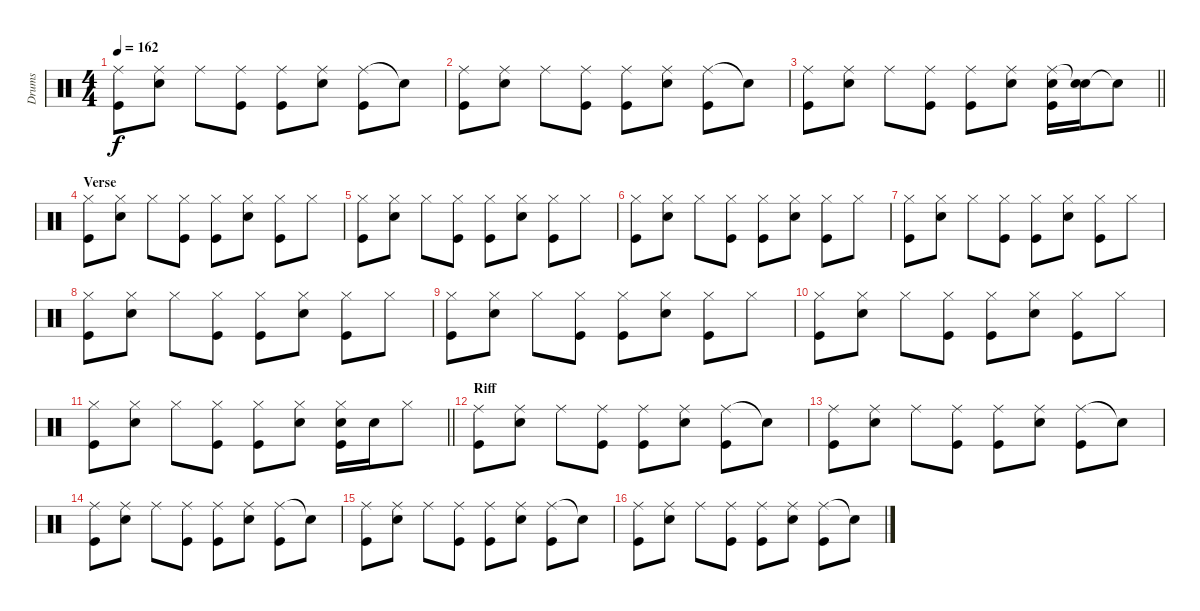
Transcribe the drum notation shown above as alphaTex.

\track ("Drums" "Drums") {instrument percussion}
\staff {score}
\articulation defaults
\ts (4 4)
\tempo 162
\clef neutral
\ks c
("Ride (middle)" "Kick (hit)").8{dy f} ("Ride (middle)" "Snare (hit) 2").8 "Ride (middle)".8 ("Ride (middle)" "Kick (hit)").8 ("Ride (middle)" "Kick (hit)").8 ("Ride (middle)" "Snare (hit) 2").8 ("Ride (middle)" "Kick (hit)").8 "Snare (hit)"{t}.8 |
("Ride (middle)" "Kick (hit)").8 ("Ride (middle)" "Snare (hit) 2").8 "Ride (middle)".8 ("Ride (middle)" "Kick (hit)").8 ("Ride (middle)" "Kick (hit)").8 ("Ride (middle)" "Snare (hit) 2").8 ("Ride (middle)" "Kick (hit)").8 "Snare (hit)"{t}.8 |
\barLineRight lightlight
("Ride (middle)" "Kick (hit)").8 ("Ride (middle)" "Snare (hit) 2").8 "Ride (middle)".8 ("Ride (middle)" "Kick (hit)").8 ("Ride (middle)" "Kick (hit)").8 ("Ride (middle)" "Snare (hit) 2").8 ("Ride (middle)" "Snare (hit) 2" "Kick (hit)").16 ("Snare (hit)"{t} "Snare (hit) 2").16 "Snare (hit)"{t}.8 |
\section ("" "Verse")
("Hi-Hat (closed)" "Kick (hit)").8 ("Hi-Hat (closed)" "Snare (hit) 2").8 "Hi-Hat (closed)".8 ("Hi-Hat (closed)" "Kick (hit)").8 ("Hi-Hat (closed)" "Kick (hit)").8 ("Hi-Hat (closed)" "Snare (hit) 2").8 ("Hi-Hat (closed)" "Kick (hit)").8 "Hi-Hat (closed)".8 |
("Hi-Hat (closed)" "Kick (hit)").8 ("Hi-Hat (closed)" "Snare (hit) 2").8 "Hi-Hat (closed)".8 ("Hi-Hat (closed)" "Kick (hit)").8 ("Hi-Hat (closed)" "Kick (hit)").8 ("Hi-Hat (closed)" "Snare (hit) 2").8 ("Hi-Hat (closed)" "Kick (hit)").8 "Hi-Hat (closed)".8 |
("Hi-Hat (closed)" "Kick (hit)").8 ("Hi-Hat (closed)" "Snare (hit) 2").8 "Hi-Hat (closed)".8 ("Hi-Hat (closed)" "Kick (hit)").8 ("Hi-Hat (closed)" "Kick (hit)").8 ("Hi-Hat (closed)" "Snare (hit) 2").8 ("Hi-Hat (closed)" "Kick (hit)").8 "Hi-Hat (closed)".8 |
("Hi-Hat (closed)" "Kick (hit)").8 ("Hi-Hat (closed)" "Snare (hit) 2").8 "Hi-Hat (closed)".8 ("Hi-Hat (closed)" "Kick (hit)").8 ("Hi-Hat (closed)" "Kick (hit)").8 ("Hi-Hat (closed)" "Snare (hit) 2").8 ("Hi-Hat (closed)" "Kick (hit)").8 "Hi-Hat (closed)".8 |
("Hi-Hat (closed)" "Kick (hit)").8 ("Hi-Hat (closed)" "Snare (hit) 2").8 "Hi-Hat (closed)".8 ("Hi-Hat (closed)" "Kick (hit)").8 ("Hi-Hat (closed)" "Kick (hit)").8 ("Hi-Hat (closed)" "Snare (hit) 2").8 ("Hi-Hat (closed)" "Kick (hit)").8 "Hi-Hat (closed)".8 |
("Hi-Hat (closed)" "Kick (hit)").8 ("Hi-Hat (closed)" "Snare (hit) 2").8 "Hi-Hat (closed)".8 ("Hi-Hat (closed)" "Kick (hit)").8 ("Hi-Hat (closed)" "Kick (hit)").8 ("Hi-Hat (closed)" "Snare (hit) 2").8 ("Hi-Hat (closed)" "Kick (hit)").8 "Hi-Hat (closed)".8 |
("Hi-Hat (closed)" "Kick (hit)").8 ("Hi-Hat (closed)" "Snare (hit) 2").8 "Hi-Hat (closed)".8 ("Hi-Hat (closed)" "Kick (hit)").8 ("Hi-Hat (closed)" "Kick (hit)").8 ("Hi-Hat (closed)" "Snare (hit) 2").8 ("Hi-Hat (closed)" "Kick (hit)").8 "Hi-Hat (closed)".8 |
\barLineRight lightlight
("Hi-Hat (closed)" "Kick (hit)").8 ("Hi-Hat (closed)" "Snare (hit) 2").8 "Hi-Hat (closed)".8 ("Hi-Hat (closed)" "Kick (hit)").8 ("Hi-Hat (closed)" "Kick (hit)").8 ("Hi-Hat (closed)" "Snare (hit) 2").8 ("Hi-Hat (closed)" "Snare (hit) 2" "Kick (hit)").16 "Snare (hit) 2".16 "Hi-Hat (closed)".8 |
\section ("" "Riff")
("Ride (middle)" "Kick (hit)").8 ("Ride (middle)" "Snare (hit) 2").8 "Ride (middle)".8 ("Ride (middle)" "Kick (hit)").8 ("Ride (middle)" "Kick (hit)").8 ("Ride (middle)" "Snare (hit) 2").8 ("Ride (middle)" "Kick (hit)").8 "Snare (hit)"{t}.8 |
("Ride (middle)" "Kick (hit)").8 ("Ride (middle)" "Snare (hit) 2").8 "Ride (middle)".8 ("Ride (middle)" "Kick (hit)").8 ("Ride (middle)" "Kick (hit)").8 ("Ride (middle)" "Snare (hit) 2").8 ("Ride (middle)" "Kick (hit)").8 "Snare (hit)"{t}.8 |
("Ride (middle)" "Kick (hit)").8 ("Ride (middle)" "Snare (hit) 2").8 "Ride (middle)".8 ("Ride (middle)" "Kick (hit)").8 ("Ride (middle)" "Kick (hit)").8 ("Ride (middle)" "Snare (hit) 2").8 ("Ride (middle)" "Kick (hit)").8 "Snare (hit)"{t}.8 |
("Ride (middle)" "Kick (hit)").8 ("Ride (middle)" "Snare (hit) 2").8 "Ride (middle)".8 ("Ride (middle)" "Kick (hit)").8 ("Ride (middle)" "Kick (hit)").8 ("Ride (middle)" "Snare (hit) 2").8 ("Ride (middle)" "Kick (hit)").8 "Snare (hit)"{t}.8 |
("Ride (middle)" "Kick (hit)").8 ("Ride (middle)" "Snare (hit) 2").8 "Ride (middle)".8 ("Ride (middle)" "Kick (hit)").8 ("Ride (middle)" "Kick (hit)").8 ("Ride (middle)" "Snare (hit) 2").8 ("Ride (middle)" "Kick (hit)").8 "Snare (hit)"{t}.8
